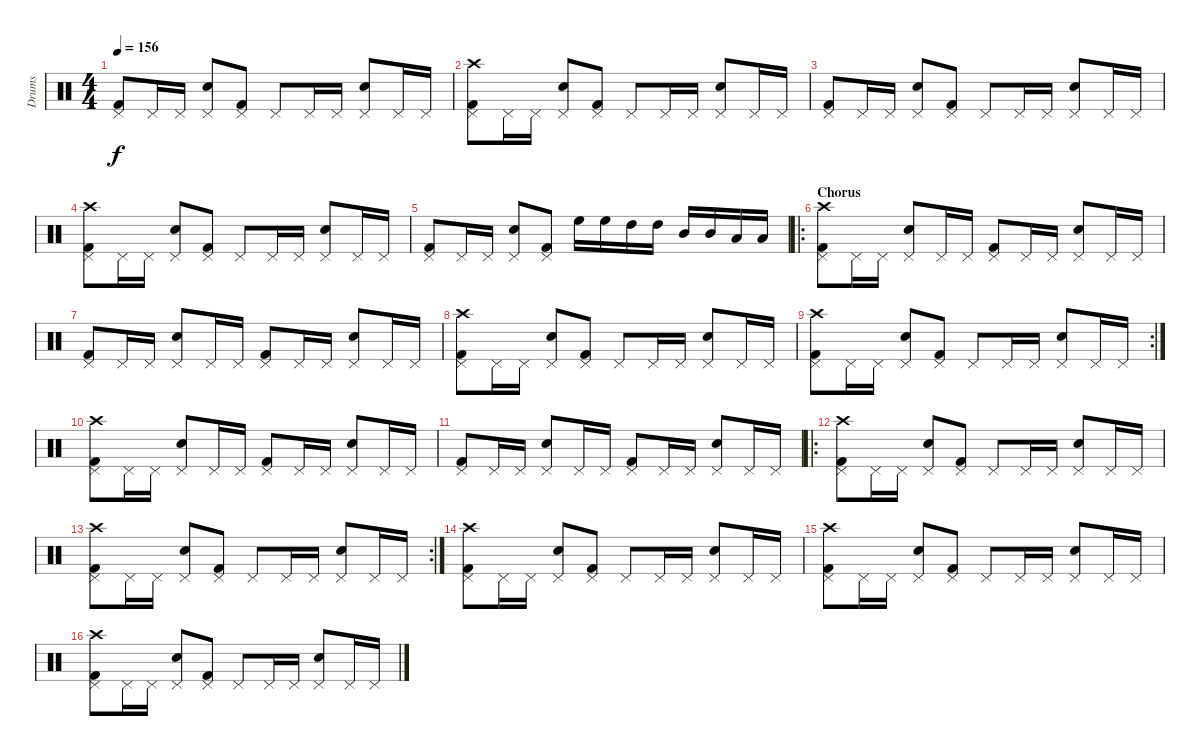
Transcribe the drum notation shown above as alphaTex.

\track ("Drums" "Drums") {instrument percussion}
\staff {score}
\articulation defaults
\ts (4 4)
\tempo 156
\clef neutral
\ks c
("Kick (hit) 2" "Pedal Hi-Hat (hit)").8{dy f} "Pedal Hi-Hat (hit)".16 "Pedal Hi-Hat (hit)".16 ("Snare (hit) 2" "Pedal Hi-Hat (hit)").8 ("Kick (hit) 2" "Pedal Hi-Hat (hit)").8 "Pedal Hi-Hat (hit)".8 "Pedal Hi-Hat (hit)".16 "Pedal Hi-Hat (hit)".16 ("Snare (hit) 2" "Pedal Hi-Hat (hit)").8 "Pedal Hi-Hat (hit)".16 "Pedal Hi-Hat (hit)".16 |
("Kick (hit) 2" "Pedal Hi-Hat (hit)" "Crash high (hit)").8 "Pedal Hi-Hat (hit)".16 "Pedal Hi-Hat (hit)".16 ("Snare (hit) 2" "Pedal Hi-Hat (hit)").8 ("Kick (hit) 2" "Pedal Hi-Hat (hit)").8 "Pedal Hi-Hat (hit)".8 "Pedal Hi-Hat (hit)".16 "Pedal Hi-Hat (hit)".16 ("Snare (hit) 2" "Pedal Hi-Hat (hit)").8 "Pedal Hi-Hat (hit)".16 "Pedal Hi-Hat (hit)".16 |
("Kick (hit) 2" "Pedal Hi-Hat (hit)").8 "Pedal Hi-Hat (hit)".16 "Pedal Hi-Hat (hit)".16 ("Snare (hit) 2" "Pedal Hi-Hat (hit)").8 ("Kick (hit) 2" "Pedal Hi-Hat (hit)").8 "Pedal Hi-Hat (hit)".8 "Pedal Hi-Hat (hit)".16 "Pedal Hi-Hat (hit)".16 ("Snare (hit) 2" "Pedal Hi-Hat (hit)").8 "Pedal Hi-Hat (hit)".16 "Pedal Hi-Hat (hit)".16 |
("Kick (hit) 2" "Pedal Hi-Hat (hit)" "Crash high (hit)").8 "Pedal Hi-Hat (hit)".16 "Pedal Hi-Hat (hit)".16 ("Snare (hit) 2" "Pedal Hi-Hat (hit)").8 ("Kick (hit) 2" "Pedal Hi-Hat (hit)").8 "Pedal Hi-Hat (hit)".8 "Pedal Hi-Hat (hit)".16 "Pedal Hi-Hat (hit)".16 ("Snare (hit) 2" "Pedal Hi-Hat (hit)").8 "Pedal Hi-Hat (hit)".16 "Pedal Hi-Hat (hit)".16 |
("Kick (hit) 2" "Pedal Hi-Hat (hit)").8 "Pedal Hi-Hat (hit)".16 "Pedal Hi-Hat (hit)".16 ("Snare (hit) 2" "Pedal Hi-Hat (hit)").8 ("Kick (hit) 2" "Pedal Hi-Hat (hit)").8 "High Floor Tom (hit)".16 "High Floor Tom (hit)".16 "High Tom (hit)".16 "High Tom (hit)".16 "Mid Tom (hit)".16 "Mid Tom (hit)".16 "Low Tom (hit)".16 "Low Tom (hit)".16 |
\ro
\section ("" "Chorus")
("Kick (hit) 2" "Pedal Hi-Hat (hit)" "Crash high (hit)").8 "Pedal Hi-Hat (hit)".16 "Pedal Hi-Hat (hit)".16 ("Snare (hit) 2" "Pedal Hi-Hat (hit)").8 "Pedal Hi-Hat (hit)".16 "Pedal Hi-Hat (hit)".16 ("Kick (hit) 2" "Pedal Hi-Hat (hit)").8 "Pedal Hi-Hat (hit)".16 "Pedal Hi-Hat (hit)".16 ("Snare (hit) 2" "Pedal Hi-Hat (hit)").8 "Pedal Hi-Hat (hit)".16 "Pedal Hi-Hat (hit)".16 |
("Kick (hit) 2" "Pedal Hi-Hat (hit)").8 "Pedal Hi-Hat (hit)".16 "Pedal Hi-Hat (hit)".16 ("Snare (hit) 2" "Pedal Hi-Hat (hit)").8 "Pedal Hi-Hat (hit)".16 "Pedal Hi-Hat (hit)".16 ("Kick (hit) 2" "Pedal Hi-Hat (hit)").8 "Pedal Hi-Hat (hit)".16 "Pedal Hi-Hat (hit)".16 ("Snare (hit) 2" "Pedal Hi-Hat (hit)").8 "Pedal Hi-Hat (hit)".16 "Pedal Hi-Hat (hit)".16 |
("Kick (hit) 2" "Pedal Hi-Hat (hit)" "Crash high (hit)").8 "Pedal Hi-Hat (hit)".16 "Pedal Hi-Hat (hit)".16 ("Snare (hit) 2" "Pedal Hi-Hat (hit)").8 ("Kick (hit) 2" "Pedal Hi-Hat (hit)").8 "Pedal Hi-Hat (hit)".8 "Pedal Hi-Hat (hit)".16 "Pedal Hi-Hat (hit)".16 ("Snare (hit) 2" "Pedal Hi-Hat (hit)").8 "Pedal Hi-Hat (hit)".16 "Pedal Hi-Hat (hit)".16 |
\rc 2
("Kick (hit) 2" "Pedal Hi-Hat (hit)" "Crash high (hit)").8 "Pedal Hi-Hat (hit)".16 "Pedal Hi-Hat (hit)".16 ("Snare (hit) 2" "Pedal Hi-Hat (hit)").8 ("Kick (hit) 2" "Pedal Hi-Hat (hit)").8 "Pedal Hi-Hat (hit)".8 "Pedal Hi-Hat (hit)".16 "Pedal Hi-Hat (hit)".16 ("Snare (hit) 2" "Pedal Hi-Hat (hit)").8 "Pedal Hi-Hat (hit)".16 "Pedal Hi-Hat (hit)".16 |
("Kick (hit) 2" "Pedal Hi-Hat (hit)" "Crash high (hit)").8 "Pedal Hi-Hat (hit)".16 "Pedal Hi-Hat (hit)".16 ("Snare (hit) 2" "Pedal Hi-Hat (hit)").8 "Pedal Hi-Hat (hit)".16 "Pedal Hi-Hat (hit)".16 ("Kick (hit) 2" "Pedal Hi-Hat (hit)").8 "Pedal Hi-Hat (hit)".16 "Pedal Hi-Hat (hit)".16 ("Snare (hit) 2" "Pedal Hi-Hat (hit)").8 "Pedal Hi-Hat (hit)".16 "Pedal Hi-Hat (hit)".16 |
("Kick (hit) 2" "Pedal Hi-Hat (hit)").8 "Pedal Hi-Hat (hit)".16 "Pedal Hi-Hat (hit)".16 ("Snare (hit) 2" "Pedal Hi-Hat (hit)").8 "Pedal Hi-Hat (hit)".16 "Pedal Hi-Hat (hit)".16 ("Kick (hit) 2" "Pedal Hi-Hat (hit)").8 "Pedal Hi-Hat (hit)".16 "Pedal Hi-Hat (hit)".16 ("Snare (hit) 2" "Pedal Hi-Hat (hit)").8 "Pedal Hi-Hat (hit)".16 "Pedal Hi-Hat (hit)".16 |
\ro
("Kick (hit) 2" "Pedal Hi-Hat (hit)" "Crash high (hit)").8 "Pedal Hi-Hat (hit)".16 "Pedal Hi-Hat (hit)".16 ("Snare (hit) 2" "Pedal Hi-Hat (hit)").8 ("Kick (hit) 2" "Pedal Hi-Hat (hit)").8 "Pedal Hi-Hat (hit)".8 "Pedal Hi-Hat (hit)".16 "Pedal Hi-Hat (hit)".16 ("Snare (hit) 2" "Pedal Hi-Hat (hit)").8 "Pedal Hi-Hat (hit)".16 "Pedal Hi-Hat (hit)".16 |
\rc 2
("Kick (hit) 2" "Pedal Hi-Hat (hit)" "Crash high (hit)").8 "Pedal Hi-Hat (hit)".16 "Pedal Hi-Hat (hit)".16 ("Snare (hit) 2" "Pedal Hi-Hat (hit)").8 ("Kick (hit) 2" "Pedal Hi-Hat (hit)").8 "Pedal Hi-Hat (hit)".8 "Pedal Hi-Hat (hit)".16 "Pedal Hi-Hat (hit)".16 ("Snare (hit) 2" "Pedal Hi-Hat (hit)").8 "Pedal Hi-Hat (hit)".16 "Pedal Hi-Hat (hit)".16 |
("Kick (hit) 2" "Pedal Hi-Hat (hit)" "Crash high (hit)").8 "Pedal Hi-Hat (hit)".16 "Pedal Hi-Hat (hit)".16 ("Snare (hit) 2" "Pedal Hi-Hat (hit)").8 ("Kick (hit) 2" "Pedal Hi-Hat (hit)").8 "Pedal Hi-Hat (hit)".8 "Pedal Hi-Hat (hit)".16 "Pedal Hi-Hat (hit)".16 ("Snare (hit) 2" "Pedal Hi-Hat (hit)").8 "Pedal Hi-Hat (hit)".16 "Pedal Hi-Hat (hit)".16 |
("Kick (hit) 2" "Pedal Hi-Hat (hit)" "Crash high (hit)").8 "Pedal Hi-Hat (hit)".16 "Pedal Hi-Hat (hit)".16 ("Snare (hit) 2" "Pedal Hi-Hat (hit)").8 ("Kick (hit) 2" "Pedal Hi-Hat (hit)").8 "Pedal Hi-Hat (hit)".8 "Pedal Hi-Hat (hit)".16 "Pedal Hi-Hat (hit)".16 ("Snare (hit) 2" "Pedal Hi-Hat (hit)").8 "Pedal Hi-Hat (hit)".16 "Pedal Hi-Hat (hit)".16 |
("Kick (hit) 2" "Pedal Hi-Hat (hit)" "Crash high (hit)").8 "Pedal Hi-Hat (hit)".16 "Pedal Hi-Hat (hit)".16 ("Snare (hit) 2" "Pedal Hi-Hat (hit)").8 ("Kick (hit) 2" "Pedal Hi-Hat (hit)").8 "Pedal Hi-Hat (hit)".8 "Pedal Hi-Hat (hit)".16 "Pedal Hi-Hat (hit)".16 ("Snare (hit) 2" "Pedal Hi-Hat (hit)").8 "Pedal Hi-Hat (hit)".16 "Pedal Hi-Hat (hit)".16
